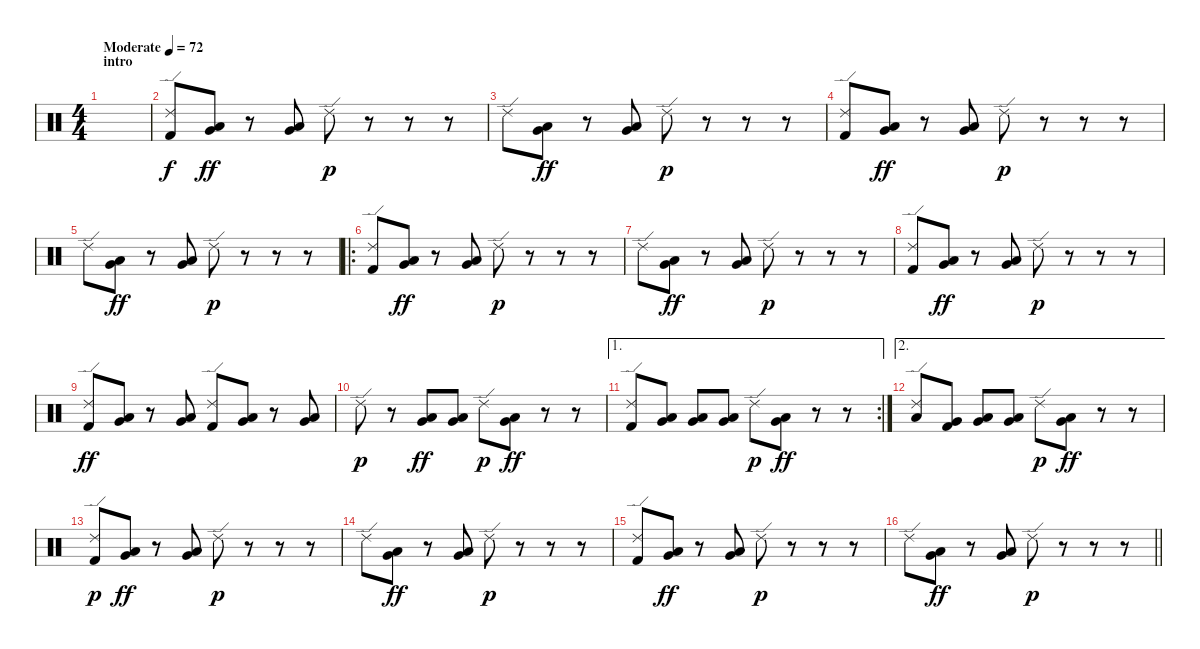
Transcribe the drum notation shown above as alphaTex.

\track "" {instrument percussion}
\staff {score}
\articulation defaults
\ts (4 4)
\section ("" "intro")
\tempo (72 "Moderate")
\clef neutral
\ks c
|
("Ride (edge) 2" "Kick (hit) 2").8 ("Very Low Tom (hit)" "Low Floor Tom (hit)").8{dy ff} r.8 ("Very Low Tom (hit)" "Low Floor Tom (hit)").8 "Ride (edge) 2".8{dy p} r.8 r.8 r.8 |
"Ride (edge) 2".8 ("Very Low Tom (hit)" "Low Floor Tom (hit)").8{dy ff} r.8 ("Very Low Tom (hit)" "Low Floor Tom (hit)").8 "Ride (edge) 2".8{dy p} r.8 r.8 r.8 |
("Ride (edge) 2" "Kick (hit) 2").8 ("Very Low Tom (hit)" "Low Floor Tom (hit)").8{dy ff} r.8 ("Very Low Tom (hit)" "Low Floor Tom (hit)").8 "Ride (edge) 2".8{dy p} r.8 r.8 r.8 |
"Ride (edge) 2".8 ("Very Low Tom (hit)" "Low Floor Tom (hit)").8{dy ff} r.8 ("Very Low Tom (hit)" "Low Floor Tom (hit)").8 "Ride (edge) 2".8{dy p} r.8 r.8 r.8 |
\ro
("Ride (edge) 2" "Kick (hit) 2").8 ("Very Low Tom (hit)" "Low Floor Tom (hit)").8{dy ff} r.8 ("Very Low Tom (hit)" "Low Floor Tom (hit)").8 "Ride (edge) 2".8{dy p} r.8 r.8 r.8 |
"Ride (edge) 2".8 ("Very Low Tom (hit)" "Low Floor Tom (hit)").8{dy ff} r.8 ("Very Low Tom (hit)" "Low Floor Tom (hit)").8 "Ride (edge) 2".8{dy p} r.8 r.8 r.8 |
("Ride (edge) 2" "Kick (hit) 2").8 ("Very Low Tom (hit)" "Low Floor Tom (hit)").8{dy ff} r.8 ("Very Low Tom (hit)" "Low Floor Tom (hit)").8 "Ride (edge) 2".8{dy p} r.8 r.8 r.8 |
("Ride (edge) 2" "Kick (hit) 2").8{dy ff} ("Very Low Tom (hit)" "Low Floor Tom (hit)").8 r.8 ("Very Low Tom (hit)" "Low Floor Tom (hit)").8 ("Ride (edge) 2" "Kick (hit) 2").8 ("Very Low Tom (hit)" "Low Floor Tom (hit)").8 r.8 ("Very Low Tom (hit)" "Low Floor Tom (hit)").8 |
"Ride (edge) 2".8{dy p} r.8 ("Very Low Tom (hit)" "Low Floor Tom (hit)").8{dy ff} ("Very Low Tom (hit)" "Low Floor Tom (hit)").8 "Ride (edge) 2".8{dy p} ("Very Low Tom (hit)" "Low Floor Tom (hit)").8{dy ff} r.8 r.8 |
\ae 1
\rc 2
("Ride (edge) 2" "Kick (hit) 2").8 ("Very Low Tom (hit)" "Low Floor Tom (hit)").8 ("Very Low Tom (hit)" "Low Floor Tom (hit)").8 ("Very Low Tom (hit)" "Low Floor Tom (hit)").8 "Ride (edge) 2".8{dy p} ("Very Low Tom (hit)" "Low Floor Tom (hit)").8{dy ff} r.8 r.8 |
\ae 2
("Ride (edge) 2" "Low Floor Tom (hit)").8 ("Very Low Tom (hit)" "Kick (hit) 2").8 ("Very Low Tom (hit)" "Low Floor Tom (hit)").8 ("Very Low Tom (hit)" "Low Floor Tom (hit)").8 "Ride (edge) 2".8{dy p} ("Very Low Tom (hit)" "Low Floor Tom (hit)").8{dy ff} r.8 r.8 |
("Ride (edge) 2" "Kick (hit) 2").8{dy p} ("Very Low Tom (hit)" "Low Floor Tom (hit)").8{dy ff} r.8 ("Very Low Tom (hit)" "Low Floor Tom (hit)").8 "Ride (edge) 2".8{dy p} r.8 r.8 r.8 |
"Ride (edge) 2".8 ("Very Low Tom (hit)" "Low Floor Tom (hit)").8{dy ff} r.8 ("Very Low Tom (hit)" "Low Floor Tom (hit)").8 "Ride (edge) 2".8{dy p} r.8 r.8 r.8 |
("Ride (edge) 2" "Kick (hit) 2").8 ("Very Low Tom (hit)" "Low Floor Tom (hit)").8{dy ff} r.8 ("Very Low Tom (hit)" "Low Floor Tom (hit)").8 "Ride (edge) 2".8{dy p} r.8 r.8 r.8 |
\barLineRight lightlight "Ride (edge) 2".8
("Very Low Tom (hit)" "Low Floor Tom (hit)").8{dy ff} r.8 ("Very Low Tom (hit)" "Low Floor Tom (hit)").8 "Ride (edge) 2".8{dy p} r.8 r.8 r.8
